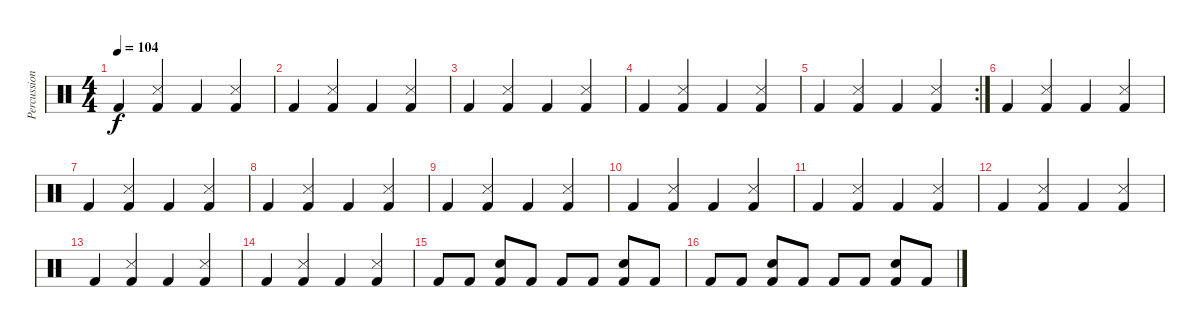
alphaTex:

\track ("Percussions" "Percussion") {instrument percussion}
\staff {score}
\articulation defaults
\ts (4 4)
\tempo 104
\clef neutral
\ks c "Kick (hit) 2".4{dy f}
("Snare (side stick) 3" "Kick (hit) 2").4 "Kick (hit) 2".4 ("Snare (side stick) 3" "Kick (hit) 2").4 |
"Kick (hit) 2".4 ("Snare (side stick) 3" "Kick (hit) 2").4 "Kick (hit) 2".4 ("Snare (side stick) 3" "Kick (hit) 2").4 |
"Kick (hit) 2".4 ("Snare (side stick) 3" "Kick (hit) 2").4 "Kick (hit) 2".4 ("Snare (side stick) 3" "Kick (hit) 2").4 |
"Kick (hit) 2".4 ("Snare (side stick) 3" "Kick (hit) 2").4 "Kick (hit) 2".4 ("Snare (side stick) 3" "Kick (hit) 2").4 |
\rc 2 "Kick (hit) 2".4
("Snare (side stick) 3" "Kick (hit) 2").4 "Kick (hit) 2".4 ("Snare (side stick) 3" "Kick (hit) 2").4 |
"Kick (hit) 2".4 ("Snare (side stick) 3" "Kick (hit) 2").4 "Kick (hit) 2".4 ("Snare (side stick) 3" "Kick (hit) 2").4 |
"Kick (hit) 2".4 ("Snare (side stick) 3" "Kick (hit) 2").4 "Kick (hit) 2".4 ("Snare (side stick) 3" "Kick (hit) 2").4 |
"Kick (hit) 2".4 ("Snare (side stick) 3" "Kick (hit) 2").4 "Kick (hit) 2".4 ("Snare (side stick) 3" "Kick (hit) 2").4 |
"Kick (hit) 2".4 ("Snare (side stick) 3" "Kick (hit) 2").4 "Kick (hit) 2".4 ("Snare (side stick) 3" "Kick (hit) 2").4 |
"Kick (hit) 2".4 ("Snare (side stick) 3" "Kick (hit) 2").4 "Kick (hit) 2".4 ("Snare (side stick) 3" "Kick (hit) 2").4 |
"Kick (hit) 2".4 ("Snare (side stick) 3" "Kick (hit) 2").4 "Kick (hit) 2".4 ("Snare (side stick) 3" "Kick (hit) 2").4 |
"Kick (hit) 2".4 ("Snare (side stick) 3" "Kick (hit) 2").4 "Kick (hit) 2".4 ("Snare (side stick) 3" "Kick (hit) 2").4 |
"Kick (hit) 2".4 ("Snare (side stick) 3" "Kick (hit) 2").4 "Kick (hit) 2".4 ("Snare (side stick) 3" "Kick (hit) 2").4 |
"Kick (hit) 2".4 ("Snare (side stick) 3" "Kick (hit) 2").4 "Kick (hit) 2".4 ("Snare (side stick) 3" "Kick (hit) 2").4 |
"Kick (hit) 2".8{volume 16} "Kick (hit) 2".8 ("Snare (hit) 2" "Kick (hit) 2").8 "Kick (hit) 2".8 "Kick (hit) 2".8 "Kick (hit) 2".8 ("Snare (hit) 2" "Kick (hit) 2").8 "Kick (hit) 2".8 |
"Kick (hit) 2".8 "Kick (hit) 2".8 ("Snare (hit) 2" "Kick (hit) 2").8 "Kick (hit) 2".8 "Kick (hit) 2".8 "Kick (hit) 2".8 ("Snare (hit) 2" "Kick (hit) 2").8 "Kick (hit) 2".8
